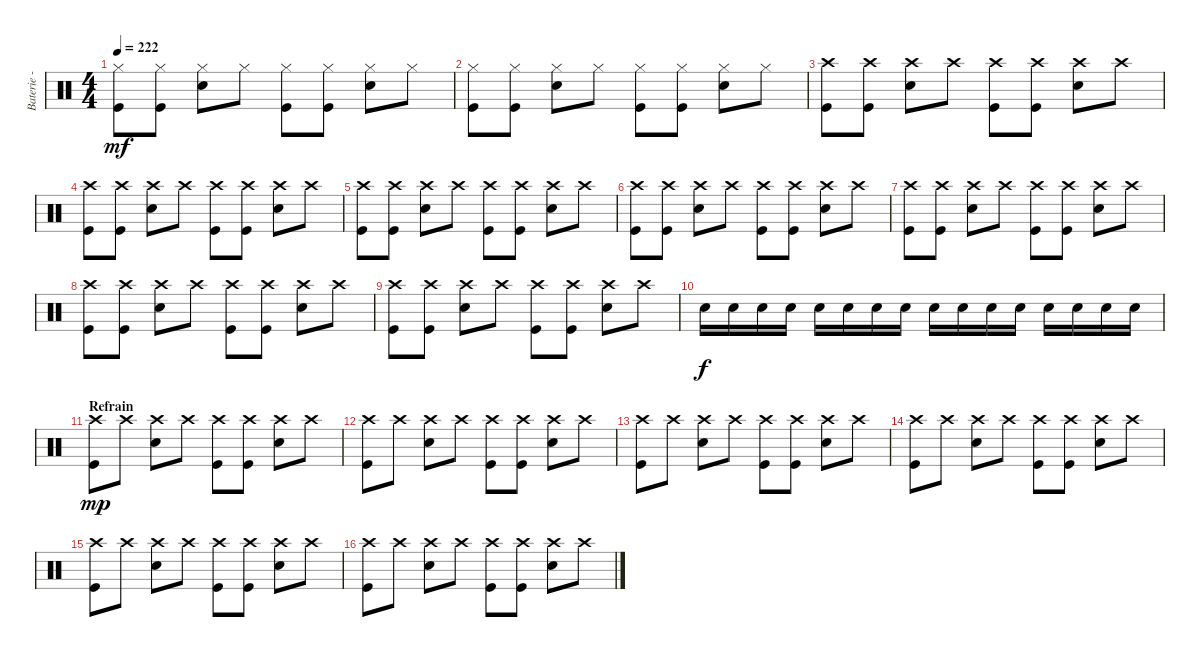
\track ("Baterie - Guillaume" "Baterie - ") {instrument percussion}
\staff {score}
\articulation defaults
\ts (4 4)
\tempo 222
\clef neutral
\ks c
("Hi-Hat (closed)" "Kick (hit)").8{dy mf} ("Hi-Hat (closed)" "Kick (hit)").8 ("Hi-Hat (closed)" "Snare (hit) 2").8 "Hi-Hat (closed)".8 ("Hi-Hat (closed)" "Kick (hit)").8 ("Hi-Hat (closed)" "Kick (hit)").8 ("Hi-Hat (closed)" "Snare (hit) 2").8 "Hi-Hat (closed)".8 |
("Hi-Hat (closed)" "Kick (hit)").8 ("Hi-Hat (closed)" "Kick (hit)").8 ("Hi-Hat (closed)" "Snare (hit) 2").8 "Hi-Hat (closed)".8 ("Hi-Hat (closed)" "Kick (hit)").8 ("Hi-Hat (closed)" "Kick (hit)").8 ("Hi-Hat (closed)" "Snare (hit) 2").8 "Hi-Hat (closed)".8 |
("Crash high (hit)" "Kick (hit)").8 ("Crash high (hit)" "Kick (hit)").8 ("Crash high (hit)" "Snare (hit) 2").8 "Crash high (hit)".8 ("Crash high (hit)" "Kick (hit)").8 ("Crash high (hit)" "Kick (hit)").8 ("Crash high (hit)" "Snare (hit) 2").8 "Crash high (hit)".8 |
("Crash high (hit)" "Kick (hit)").8 ("Crash high (hit)" "Kick (hit)").8 ("Crash high (hit)" "Snare (hit) 2").8 "Crash high (hit)".8 ("Crash high (hit)" "Kick (hit)").8 ("Crash high (hit)" "Kick (hit)").8 ("Crash high (hit)" "Snare (hit) 2").8 "Crash high (hit)".8 |
("Crash high (hit)" "Kick (hit)").8 ("Crash high (hit)" "Kick (hit)").8 ("Crash high (hit)" "Snare (hit) 2").8 "Crash high (hit)".8 ("Crash high (hit)" "Kick (hit)").8 ("Crash high (hit)" "Kick (hit)").8 ("Crash high (hit)" "Snare (hit) 2").8 "Crash high (hit)".8 |
("Crash high (hit)" "Kick (hit)").8 ("Crash high (hit)" "Kick (hit)").8 ("Crash high (hit)" "Snare (hit) 2").8 "Crash high (hit)".8 ("Crash high (hit)" "Kick (hit)").8 ("Crash high (hit)" "Kick (hit)").8 ("Crash high (hit)" "Snare (hit) 2").8 "Crash high (hit)".8 |
("Crash high (hit)" "Kick (hit)").8 ("Crash high (hit)" "Kick (hit)").8 ("Crash high (hit)" "Snare (hit) 2").8 "Crash high (hit)".8 ("Crash high (hit)" "Kick (hit)").8 ("Crash high (hit)" "Kick (hit)").8 ("Crash high (hit)" "Snare (hit) 2").8 "Crash high (hit)".8 |
("Crash high (hit)" "Kick (hit)").8 ("Crash high (hit)" "Kick (hit)").8 ("Crash high (hit)" "Snare (hit) 2").8 "Crash high (hit)".8 ("Crash high (hit)" "Kick (hit)").8 ("Crash high (hit)" "Kick (hit)").8 ("Crash high (hit)" "Snare (hit) 2").8 "Crash high (hit)".8 |
("Crash high (hit)" "Kick (hit)").8 ("Crash high (hit)" "Kick (hit)").8 ("Crash high (hit)" "Snare (hit) 2").8 "Crash high (hit)".8 ("Crash high (hit)" "Kick (hit)").8 ("Crash high (hit)" "Kick (hit)").8 ("Crash high (hit)" "Snare (hit) 2").8 "Crash high (hit)".8 |
"Snare (hit) 2".16{dy f} "Snare (hit) 2".16 "Snare (hit) 2".16 "Snare (hit) 2".16 "Snare (hit) 2".16 "Snare (hit) 2".16 "Snare (hit) 2".16 "Snare (hit) 2".16 "Snare (hit) 2".16 "Snare (hit) 2".16 "Snare (hit) 2".16 "Snare (hit) 2".16 "Snare (hit) 2".16 "Snare (hit) 2".16 "Snare (hit) 2".16 "Snare (hit) 2".16 |
\section ("" "Refrain")
("Crash high (hit)" "Kick (hit)").8{dy mp} "Crash high (hit)".8 ("Crash high (hit)" "Snare (hit) 2").8 "Crash high (hit)".8 ("Crash high (hit)" "Kick (hit)").8 ("Crash high (hit)" "Kick (hit)").8 ("Crash high (hit)" "Snare (hit) 2").8 "Crash high (hit)".8 |
("Crash high (hit)" "Kick (hit)").8 "Crash high (hit)".8 ("Crash high (hit)" "Snare (hit) 2").8 "Crash high (hit)".8 ("Crash high (hit)" "Kick (hit)").8 ("Crash high (hit)" "Kick (hit)").8 ("Crash high (hit)" "Snare (hit) 2").8 "Crash high (hit)".8 |
("Crash high (hit)" "Kick (hit)").8 "Crash high (hit)".8 ("Crash high (hit)" "Snare (hit) 2").8 "Crash high (hit)".8 ("Crash high (hit)" "Kick (hit)").8 ("Crash high (hit)" "Kick (hit)").8 ("Crash high (hit)" "Snare (hit) 2").8 "Crash high (hit)".8 |
("Crash high (hit)" "Kick (hit)").8 "Crash high (hit)".8 ("Crash high (hit)" "Snare (hit) 2").8 "Crash high (hit)".8 ("Crash high (hit)" "Kick (hit)").8 ("Crash high (hit)" "Kick (hit)").8 ("Crash high (hit)" "Snare (hit) 2").8 "Crash high (hit)".8 |
("Crash high (hit)" "Kick (hit)").8 "Crash high (hit)".8 ("Crash high (hit)" "Snare (hit) 2").8 "Crash high (hit)".8 ("Crash high (hit)" "Kick (hit)").8 ("Crash high (hit)" "Kick (hit)").8 ("Crash high (hit)" "Snare (hit) 2").8 "Crash high (hit)".8 |
("Crash high (hit)" "Kick (hit)").8 "Crash high (hit)".8 ("Crash high (hit)" "Snare (hit) 2").8 "Crash high (hit)".8 ("Crash high (hit)" "Kick (hit)").8 ("Crash high (hit)" "Kick (hit)").8 ("Crash high (hit)" "Snare (hit) 2").8 "Crash high (hit)".8
